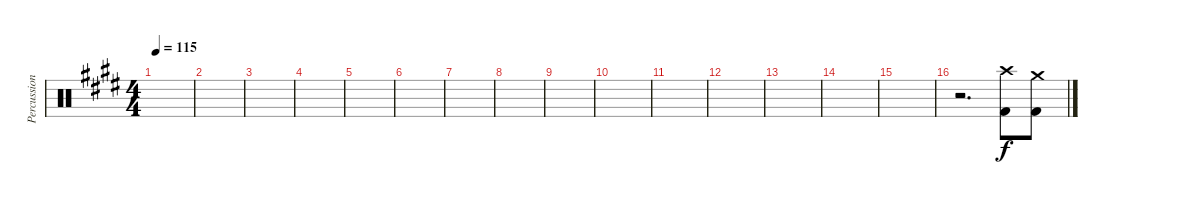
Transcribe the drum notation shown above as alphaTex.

\track ("Percussion" "Percussion") {instrument percussion}
\staff {score}
\articulation defaults
\ts (4 4)
\tempo 115
\clef neutral
\ks c#minor
|
|
|
|
|
|
|
|
|
|
|
|
|
|
|
r.2{d} ("Crash high (hit)" "Kick (hit) 2").8 ("Crash medium (hit)" "Kick (hit) 2").8
